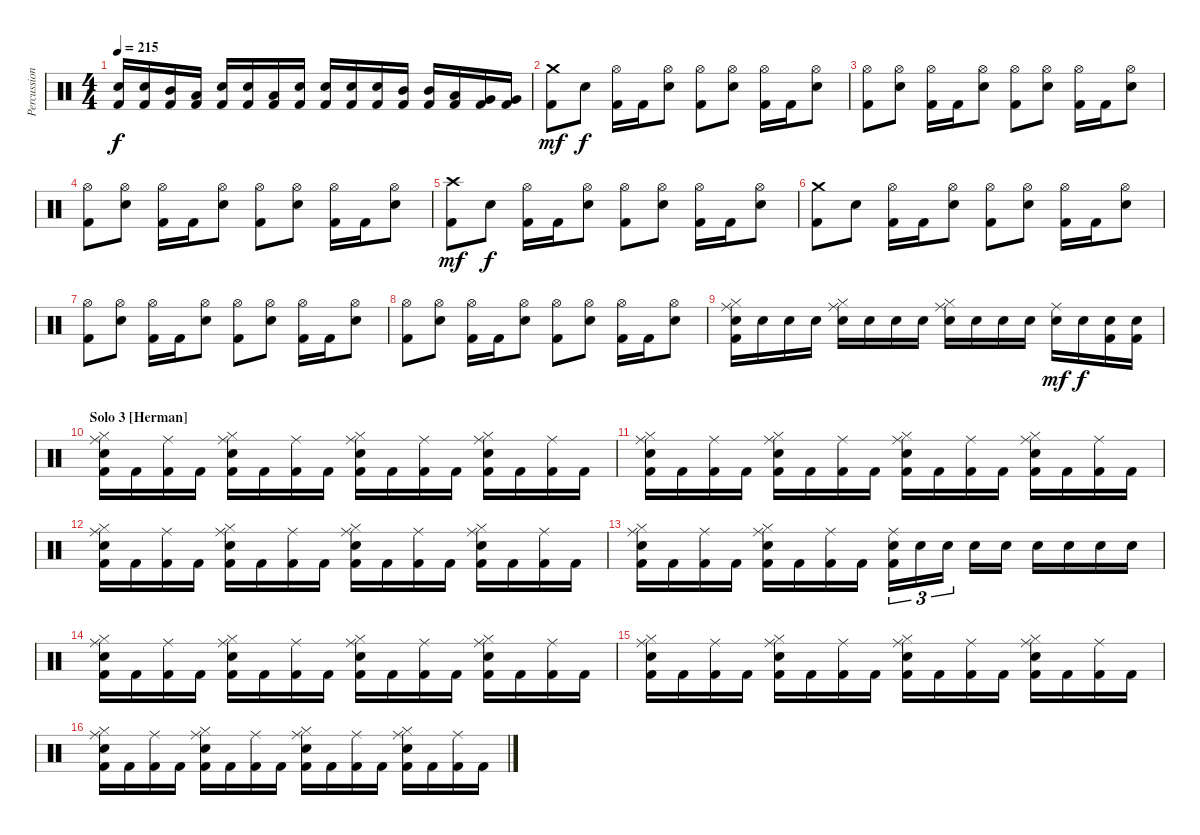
\track ("Percussion" "Percussion") {instrument percussion}
\staff {score}
\articulation defaults
\ts (4 4)
\tempo 215
\clef neutral
\ks c
("Snare (hit) 2" "Kick (hit) 2").16{dy f} ("Snare (hit) 2" "Kick (hit) 2").16 ("Mid Tom (hit)" "Kick (hit) 2").16 ("Low Tom (hit)" "Kick (hit) 2").16 ("Snare (hit) 2" "Kick (hit) 2").16 ("Snare (hit) 2" "Kick (hit) 2").16 ("Low Tom (hit)" "Kick (hit) 2").16 ("Snare (hit) 2" "Kick (hit) 2").16 ("Snare (hit) 2" "Kick (hit) 2").16 ("Snare (hit) 2" "Kick (hit) 2").16 ("Snare (hit) 2" "Kick (hit) 2").16 ("Mid Tom (hit)" "Kick (hit) 2").16 ("Mid Tom (hit)" "Kick (hit) 2").16 ("Low Tom (hit)" "Kick (hit) 2").16 ("Very Low Tom (hit)" "Kick (hit) 2").16 ("Very Low Tom (hit)" "Kick (hit) 2").16 |
("Crash medium (hit)" "Kick (hit) 2").8{dy mf} "Snare (hit) 2".8{dy f} ("Hi-Hat (open)" "Kick (hit) 2").16 "Kick (hit) 2".16 ("Hi-Hat (open)" "Snare (hit) 2").8 ("Hi-Hat (open)" "Kick (hit) 2").8 ("Hi-Hat (open)" "Snare (hit) 2").8 ("Hi-Hat (open)" "Kick (hit) 2").16 "Kick (hit) 2".16 ("Hi-Hat (open)" "Snare (hit) 2").8 |
("Hi-Hat (open)" "Kick (hit) 2").8 ("Hi-Hat (open)" "Snare (hit) 2").8 ("Hi-Hat (open)" "Kick (hit) 2").16 "Kick (hit) 2".16 ("Hi-Hat (open)" "Snare (hit) 2").8 ("Hi-Hat (open)" "Kick (hit) 2").8 ("Hi-Hat (open)" "Snare (hit) 2").8 ("Hi-Hat (open)" "Kick (hit) 2").16 "Kick (hit) 2".16 ("Hi-Hat (open)" "Snare (hit) 2").8 |
("Hi-Hat (open)" "Kick (hit) 2").8 ("Hi-Hat (open)" "Snare (hit) 2").8 ("Hi-Hat (open)" "Kick (hit) 2").16 "Kick (hit) 2".16 ("Hi-Hat (open)" "Snare (hit) 2").8 ("Hi-Hat (open)" "Kick (hit) 2").8 ("Hi-Hat (open)" "Snare (hit) 2").8 ("Hi-Hat (open)" "Kick (hit) 2").16 "Kick (hit) 2".16 ("Hi-Hat (open)" "Snare (hit) 2").8 |
("Crash high (hit)" "Kick (hit) 2").8{dy mf} "Snare (hit) 2".8{dy f} ("Hi-Hat (open)" "Kick (hit) 2").16 "Kick (hit) 2".16 ("Hi-Hat (open)" "Snare (hit) 2").8 ("Hi-Hat (open)" "Kick (hit) 2").8 ("Hi-Hat (open)" "Snare (hit) 2").8 ("Hi-Hat (open)" "Kick (hit) 2").16 "Kick (hit) 2".16 ("Hi-Hat (open)" "Snare (hit) 2").8 |
("Crash medium (hit)" "Kick (hit) 2").8 "Snare (hit) 2".8 ("Hi-Hat (open)" "Kick (hit) 2").16 "Kick (hit) 2".16 ("Hi-Hat (open)" "Snare (hit) 2").8 ("Hi-Hat (open)" "Kick (hit) 2").8 ("Hi-Hat (open)" "Snare (hit) 2").8 ("Hi-Hat (open)" "Kick (hit) 2").16 "Kick (hit) 2".16 ("Hi-Hat (open)" "Snare (hit) 2").8 |
("Hi-Hat (open)" "Kick (hit) 2").8 ("Hi-Hat (open)" "Snare (hit) 2").8 ("Hi-Hat (open)" "Kick (hit) 2").16 "Kick (hit) 2".16 ("Hi-Hat (open)" "Snare (hit) 2").8 ("Hi-Hat (open)" "Kick (hit) 2").8 ("Hi-Hat (open)" "Snare (hit) 2").8 ("Hi-Hat (open)" "Kick (hit) 2").16 "Kick (hit) 2".16 ("Hi-Hat (open)" "Snare (hit) 2").8 |
("Hi-Hat (open)" "Kick (hit) 2").8 ("Hi-Hat (open)" "Snare (hit) 2").8 ("Hi-Hat (open)" "Kick (hit) 2").16 "Kick (hit) 2".16 ("Hi-Hat (open)" "Snare (hit) 2").8 ("Hi-Hat (open)" "Kick (hit) 2").8 ("Hi-Hat (open)" "Snare (hit) 2").8 ("Hi-Hat (open)" "Kick (hit) 2").16 "Kick (hit) 2".16 ("Hi-Hat (open)" "Snare (hit) 2").8 |
("Hi-Hat (closed)" "Ride (middle)" "Snare (hit) 2" "Kick (hit) 2").16 "Snare (hit) 2".16 "Snare (hit) 2".16 "Snare (hit) 2".16 ("Hi-Hat (closed)" "Ride (middle)" "Snare (hit) 2").16 "Snare (hit) 2".16 "Snare (hit) 2".16 "Snare (hit) 2".16 ("Hi-Hat (closed)" "Ride (middle)" "Snare (hit) 2").16 "Snare (hit) 2".16 "Snare (hit) 2".16 "Snare (hit) 2".16 ("Ride (middle)" "Snare (hit) 2").16{dy mf} "Snare (hit) 2".16{dy f} ("Snare (hit) 2" "Kick (hit) 2").16 ("Snare (hit) 2" "Kick (hit) 2").16 |
\section ("" "Solo 3 [Herman]")
("Hi-Hat (closed)" "Ride (middle)" "Snare (hit) 2" "Kick (hit) 2").16 "Kick (hit) 2".16 ("Ride (middle)" "Kick (hit) 2").16 "Kick (hit) 2".16 ("Hi-Hat (closed)" "Ride (middle)" "Snare (hit) 2" "Kick (hit) 2").16 "Kick (hit) 2".16 ("Ride (middle)" "Kick (hit) 2").16 "Kick (hit) 2".16 ("Hi-Hat (closed)" "Ride (middle)" "Snare (hit) 2" "Kick (hit) 2").16 "Kick (hit) 2".16 ("Ride (middle)" "Kick (hit) 2").16 "Kick (hit) 2".16 ("Hi-Hat (closed)" "Ride (middle)" "Snare (hit) 2" "Kick (hit) 2").16 "Kick (hit) 2".16 ("Ride (middle)" "Kick (hit) 2").16 "Kick (hit) 2".16 |
("Hi-Hat (closed)" "Ride (middle)" "Snare (hit) 2" "Kick (hit) 2").16 "Kick (hit) 2".16 ("Ride (middle)" "Kick (hit) 2").16 "Kick (hit) 2".16 ("Hi-Hat (closed)" "Ride (middle)" "Snare (hit) 2" "Kick (hit) 2").16 "Kick (hit) 2".16 ("Ride (middle)" "Kick (hit) 2").16 "Kick (hit) 2".16 ("Hi-Hat (closed)" "Ride (middle)" "Snare (hit) 2" "Kick (hit) 2").16 "Kick (hit) 2".16 ("Ride (middle)" "Kick (hit) 2").16 "Kick (hit) 2".16 ("Hi-Hat (closed)" "Ride (middle)" "Snare (hit) 2" "Kick (hit) 2").16 "Kick (hit) 2".16 ("Ride (middle)" "Kick (hit) 2").16 "Kick (hit) 2".16 |
("Hi-Hat (closed)" "Ride (middle)" "Snare (hit) 2" "Kick (hit) 2").16 "Kick (hit) 2".16 ("Ride (middle)" "Kick (hit) 2").16 "Kick (hit) 2".16 ("Hi-Hat (closed)" "Ride (middle)" "Snare (hit) 2" "Kick (hit) 2").16 "Kick (hit) 2".16 ("Ride (middle)" "Kick (hit) 2").16 "Kick (hit) 2".16 ("Hi-Hat (closed)" "Ride (middle)" "Snare (hit) 2" "Kick (hit) 2").16 "Kick (hit) 2".16 ("Ride (middle)" "Kick (hit) 2").16 "Kick (hit) 2".16 ("Hi-Hat (closed)" "Ride (middle)" "Snare (hit) 2" "Kick (hit) 2").16 "Kick (hit) 2".16 ("Ride (middle)" "Kick (hit) 2").16 "Kick (hit) 2".16 |
("Hi-Hat (closed)" "Ride (middle)" "Snare (hit) 2" "Kick (hit) 2").16 "Kick (hit) 2".16 ("Ride (middle)" "Kick (hit) 2").16 "Kick (hit) 2".16 ("Hi-Hat (closed)" "Ride (middle)" "Snare (hit) 2" "Kick (hit) 2").16 "Kick (hit) 2".16 ("Ride (middle)" "Kick (hit) 2").16 "Kick (hit) 2".16 ("Ride (middle)" "Snare (hit) 2" "Kick (hit) 2").16{tu (3 2)} "Snare (hit) 2".16{tu (3 2)} "Snare (hit) 2".16{tu (3 2)} "Snare (hit) 2".16 "Snare (hit) 2".16 "Snare (hit) 2".16 "Snare (hit) 2".16 "Snare (hit) 2".16 "Snare (hit) 2".16 |
("Hi-Hat (closed)" "Ride (middle)" "Snare (hit) 2" "Kick (hit) 2").16 "Kick (hit) 2".16 ("Ride (middle)" "Kick (hit) 2").16 "Kick (hit) 2".16 ("Hi-Hat (closed)" "Ride (middle)" "Snare (hit) 2" "Kick (hit) 2").16 "Kick (hit) 2".16 ("Ride (middle)" "Kick (hit) 2").16 "Kick (hit) 2".16 ("Hi-Hat (closed)" "Ride (middle)" "Snare (hit) 2" "Kick (hit) 2").16 "Kick (hit) 2".16 ("Ride (middle)" "Kick (hit) 2").16 "Kick (hit) 2".16 ("Hi-Hat (closed)" "Ride (middle)" "Snare (hit) 2" "Kick (hit) 2").16 "Kick (hit) 2".16 ("Ride (middle)" "Kick (hit) 2").16 "Kick (hit) 2".16 |
("Hi-Hat (closed)" "Ride (middle)" "Snare (hit) 2" "Kick (hit) 2").16 "Kick (hit) 2".16 ("Ride (middle)" "Kick (hit) 2").16 "Kick (hit) 2".16 ("Hi-Hat (closed)" "Ride (middle)" "Snare (hit) 2" "Kick (hit) 2").16 "Kick (hit) 2".16 ("Ride (middle)" "Kick (hit) 2").16 "Kick (hit) 2".16 ("Hi-Hat (closed)" "Ride (middle)" "Snare (hit) 2" "Kick (hit) 2").16 "Kick (hit) 2".16 ("Ride (middle)" "Kick (hit) 2").16 "Kick (hit) 2".16 ("Hi-Hat (closed)" "Ride (middle)" "Snare (hit) 2" "Kick (hit) 2").16 "Kick (hit) 2".16 ("Ride (middle)" "Kick (hit) 2").16 "Kick (hit) 2".16 |
("Hi-Hat (closed)" "Ride (middle)" "Snare (hit) 2" "Kick (hit) 2").16 "Kick (hit) 2".16 ("Ride (middle)" "Kick (hit) 2").16 "Kick (hit) 2".16 ("Hi-Hat (closed)" "Ride (middle)" "Snare (hit) 2" "Kick (hit) 2").16 "Kick (hit) 2".16 ("Ride (middle)" "Kick (hit) 2").16 "Kick (hit) 2".16 ("Hi-Hat (closed)" "Ride (middle)" "Snare (hit) 2" "Kick (hit) 2").16 "Kick (hit) 2".16 ("Ride (middle)" "Kick (hit) 2").16 "Kick (hit) 2".16 ("Hi-Hat (closed)" "Ride (middle)" "Snare (hit) 2" "Kick (hit) 2").16 "Kick (hit) 2".16 ("Ride (middle)" "Kick (hit) 2").16 "Kick (hit) 2".16
